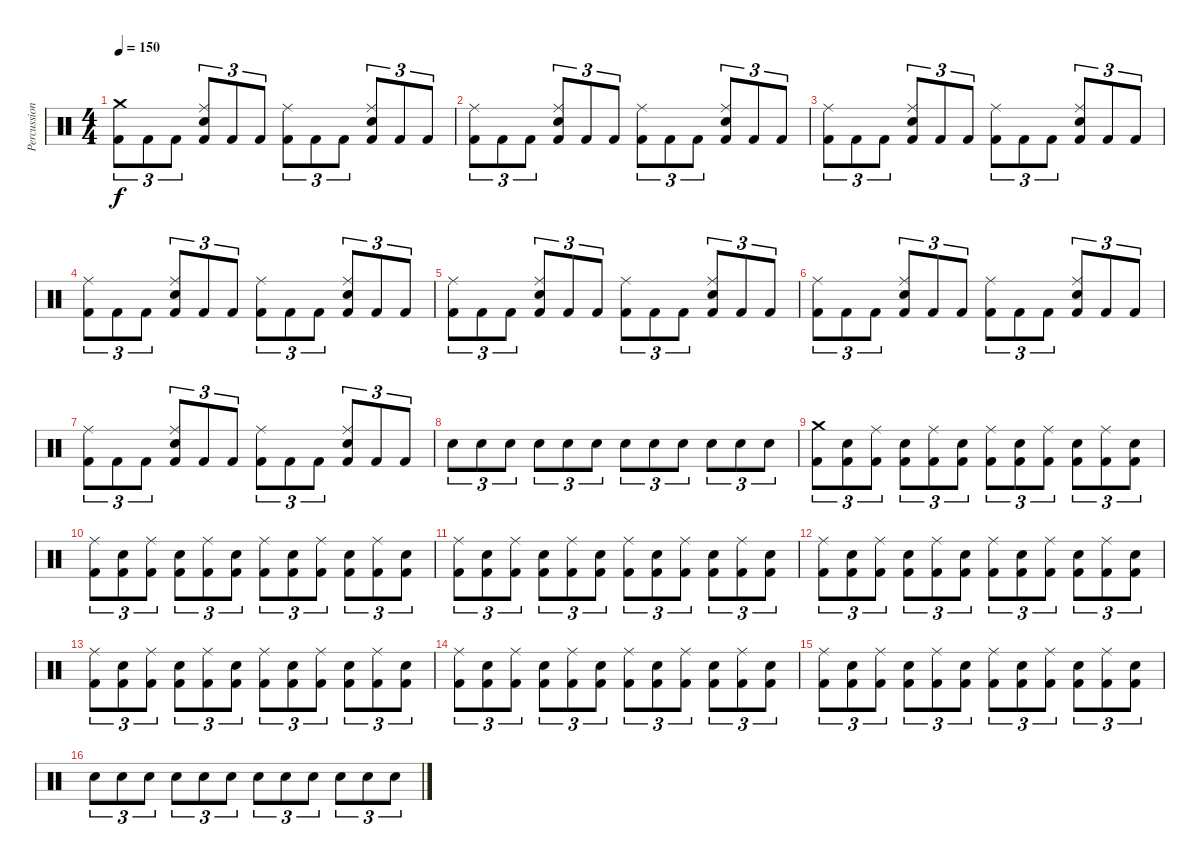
\track ("Percussion" "Percussion") {instrument percussion}
\staff {score}
\articulation defaults
\ts (4 4)
\tempo 150
\clef neutral
\ks c
("Crash medium (hit)" "Kick (hit) 2").8{tu (3 2) dy f} "Kick (hit) 2".8{tu (3 2)} "Kick (hit) 2".8{tu (3 2)} ("Ride (middle)" "Electric Snare (hit)" "Kick (hit) 2").8{tu (3 2)} "Kick (hit) 2".8{tu (3 2)} "Kick (hit) 2".8{tu (3 2)} ("Ride (middle)" "Kick (hit) 2").8{tu (3 2)} "Kick (hit) 2".8{tu (3 2)} "Kick (hit) 2".8{tu (3 2)} ("Ride (middle)" "Electric Snare (hit)" "Kick (hit) 2").8{tu (3 2)} "Kick (hit) 2".8{tu (3 2)} "Kick (hit) 2".8{tu (3 2)} |
("Ride (middle)" "Kick (hit) 2").8{tu (3 2)} "Kick (hit) 2".8{tu (3 2)} "Kick (hit) 2".8{tu (3 2)} ("Ride (middle)" "Electric Snare (hit)" "Kick (hit) 2").8{tu (3 2)} "Kick (hit) 2".8{tu (3 2)} "Kick (hit) 2".8{tu (3 2)} ("Ride (middle)" "Kick (hit) 2").8{tu (3 2)} "Kick (hit) 2".8{tu (3 2)} "Kick (hit) 2".8{tu (3 2)} ("Ride (middle)" "Electric Snare (hit)" "Kick (hit) 2").8{tu (3 2)} "Kick (hit) 2".8{tu (3 2)} "Kick (hit) 2".8{tu (3 2)} |
("Ride (middle)" "Kick (hit) 2").8{tu (3 2)} "Kick (hit) 2".8{tu (3 2)} "Kick (hit) 2".8{tu (3 2)} ("Ride (middle)" "Electric Snare (hit)" "Kick (hit) 2").8{tu (3 2)} "Kick (hit) 2".8{tu (3 2)} "Kick (hit) 2".8{tu (3 2)} ("Ride (middle)" "Kick (hit) 2").8{tu (3 2)} "Kick (hit) 2".8{tu (3 2)} "Kick (hit) 2".8{tu (3 2)} ("Ride (middle)" "Electric Snare (hit)" "Kick (hit) 2").8{tu (3 2)} "Kick (hit) 2".8{tu (3 2)} "Kick (hit) 2".8{tu (3 2)} |
("Ride (middle)" "Kick (hit) 2").8{tu (3 2)} "Kick (hit) 2".8{tu (3 2)} "Kick (hit) 2".8{tu (3 2)} ("Ride (middle)" "Electric Snare (hit)" "Kick (hit) 2").8{tu (3 2)} "Kick (hit) 2".8{tu (3 2)} "Kick (hit) 2".8{tu (3 2)} ("Ride (middle)" "Kick (hit) 2").8{tu (3 2)} "Kick (hit) 2".8{tu (3 2)} "Kick (hit) 2".8{tu (3 2)} ("Ride (middle)" "Electric Snare (hit)" "Kick (hit) 2").8{tu (3 2)} "Kick (hit) 2".8{tu (3 2)} "Kick (hit) 2".8{tu (3 2)} |
("Ride (middle)" "Kick (hit) 2").8{tu (3 2)} "Kick (hit) 2".8{tu (3 2)} "Kick (hit) 2".8{tu (3 2)} ("Ride (middle)" "Electric Snare (hit)" "Kick (hit) 2").8{tu (3 2)} "Kick (hit) 2".8{tu (3 2)} "Kick (hit) 2".8{tu (3 2)} ("Ride (middle)" "Kick (hit) 2").8{tu (3 2)} "Kick (hit) 2".8{tu (3 2)} "Kick (hit) 2".8{tu (3 2)} ("Ride (middle)" "Electric Snare (hit)" "Kick (hit) 2").8{tu (3 2)} "Kick (hit) 2".8{tu (3 2)} "Kick (hit) 2".8{tu (3 2)} |
("Ride (middle)" "Kick (hit) 2").8{tu (3 2)} "Kick (hit) 2".8{tu (3 2)} "Kick (hit) 2".8{tu (3 2)} ("Ride (middle)" "Electric Snare (hit)" "Kick (hit) 2").8{tu (3 2)} "Kick (hit) 2".8{tu (3 2)} "Kick (hit) 2".8{tu (3 2)} ("Ride (middle)" "Kick (hit) 2").8{tu (3 2)} "Kick (hit) 2".8{tu (3 2)} "Kick (hit) 2".8{tu (3 2)} ("Ride (middle)" "Electric Snare (hit)" "Kick (hit) 2").8{tu (3 2)} "Kick (hit) 2".8{tu (3 2)} "Kick (hit) 2".8{tu (3 2)} |
("Ride (middle)" "Kick (hit) 2").8{tu (3 2)} "Kick (hit) 2".8{tu (3 2)} "Kick (hit) 2".8{tu (3 2)} ("Ride (middle)" "Electric Snare (hit)" "Kick (hit) 2").8{tu (3 2)} "Kick (hit) 2".8{tu (3 2)} "Kick (hit) 2".8{tu (3 2)} ("Ride (middle)" "Kick (hit) 2").8{tu (3 2)} "Kick (hit) 2".8{tu (3 2)} "Kick (hit) 2".8{tu (3 2)} ("Ride (middle)" "Electric Snare (hit)" "Kick (hit) 2").8{tu (3 2)} "Kick (hit) 2".8{tu (3 2)} "Kick (hit) 2".8{tu (3 2)} |
"Electric Snare (hit)".8{tu (3 2)} "Electric Snare (hit)".8{tu (3 2)} "Electric Snare (hit)".8{tu (3 2)} "Electric Snare (hit)".8{tu (3 2)} "Electric Snare (hit)".8{tu (3 2)} "Electric Snare (hit)".8{tu (3 2)} "Electric Snare (hit)".8{tu (3 2)} "Electric Snare (hit)".8{tu (3 2)} "Electric Snare (hit)".8{tu (3 2)} "Electric Snare (hit)".8{tu (3 2)} "Electric Snare (hit)".8{tu (3 2)} "Electric Snare (hit)".8{tu (3 2)} |
("Crash medium (hit)" "Kick (hit) 2").8{tu (3 2)} ("Electric Snare (hit)" "Kick (hit) 2").8{tu (3 2)} ("Ride (middle)" "Kick (hit) 2").8{tu (3 2)} ("Electric Snare (hit)" "Kick (hit) 2").8{tu (3 2)} ("Ride (middle)" "Kick (hit) 2").8{tu (3 2)} ("Electric Snare (hit)" "Kick (hit) 2").8{tu (3 2)} ("Ride (middle)" "Kick (hit) 2").8{tu (3 2)} ("Electric Snare (hit)" "Kick (hit) 2").8{tu (3 2)} ("Ride (middle)" "Kick (hit) 2").8{tu (3 2)} ("Electric Snare (hit)" "Kick (hit) 2").8{tu (3 2)} ("Ride (middle)" "Kick (hit) 2").8{tu (3 2)} ("Electric Snare (hit)" "Kick (hit) 2").8{tu (3 2)} |
("Ride (middle)" "Kick (hit) 2").8{tu (3 2)} ("Electric Snare (hit)" "Kick (hit) 2").8{tu (3 2)} ("Ride (middle)" "Kick (hit) 2").8{tu (3 2)} ("Electric Snare (hit)" "Kick (hit) 2").8{tu (3 2)} ("Ride (middle)" "Kick (hit) 2").8{tu (3 2)} ("Electric Snare (hit)" "Kick (hit) 2").8{tu (3 2)} ("Ride (middle)" "Kick (hit) 2").8{tu (3 2)} ("Electric Snare (hit)" "Kick (hit) 2").8{tu (3 2)} ("Ride (middle)" "Kick (hit) 2").8{tu (3 2)} ("Electric Snare (hit)" "Kick (hit) 2").8{tu (3 2)} ("Ride (middle)" "Kick (hit) 2").8{tu (3 2)} ("Electric Snare (hit)" "Kick (hit) 2").8{tu (3 2)} |
("Ride (middle)" "Kick (hit) 2").8{tu (3 2)} ("Electric Snare (hit)" "Kick (hit) 2").8{tu (3 2)} ("Ride (middle)" "Kick (hit) 2").8{tu (3 2)} ("Electric Snare (hit)" "Kick (hit) 2").8{tu (3 2)} ("Ride (middle)" "Kick (hit) 2").8{tu (3 2)} ("Electric Snare (hit)" "Kick (hit) 2").8{tu (3 2)} ("Ride (middle)" "Kick (hit) 2").8{tu (3 2)} ("Electric Snare (hit)" "Kick (hit) 2").8{tu (3 2)} ("Ride (middle)" "Kick (hit) 2").8{tu (3 2)} ("Electric Snare (hit)" "Kick (hit) 2").8{tu (3 2)} ("Ride (middle)" "Kick (hit) 2").8{tu (3 2)} ("Electric Snare (hit)" "Kick (hit) 2").8{tu (3 2)} |
("Ride (middle)" "Kick (hit) 2").8{tu (3 2)} ("Electric Snare (hit)" "Kick (hit) 2").8{tu (3 2)} ("Ride (middle)" "Kick (hit) 2").8{tu (3 2)} ("Electric Snare (hit)" "Kick (hit) 2").8{tu (3 2)} ("Ride (middle)" "Kick (hit) 2").8{tu (3 2)} ("Electric Snare (hit)" "Kick (hit) 2").8{tu (3 2)} ("Ride (middle)" "Kick (hit) 2").8{tu (3 2)} ("Electric Snare (hit)" "Kick (hit) 2").8{tu (3 2)} ("Ride (middle)" "Kick (hit) 2").8{tu (3 2)} ("Electric Snare (hit)" "Kick (hit) 2").8{tu (3 2)} ("Ride (middle)" "Kick (hit) 2").8{tu (3 2)} ("Electric Snare (hit)" "Kick (hit) 2").8{tu (3 2)} |
("Ride (middle)" "Kick (hit) 2").8{tu (3 2)} ("Electric Snare (hit)" "Kick (hit) 2").8{tu (3 2)} ("Ride (middle)" "Kick (hit) 2").8{tu (3 2)} ("Electric Snare (hit)" "Kick (hit) 2").8{tu (3 2)} ("Ride (middle)" "Kick (hit) 2").8{tu (3 2)} ("Electric Snare (hit)" "Kick (hit) 2").8{tu (3 2)} ("Ride (middle)" "Kick (hit) 2").8{tu (3 2)} ("Electric Snare (hit)" "Kick (hit) 2").8{tu (3 2)} ("Ride (middle)" "Kick (hit) 2").8{tu (3 2)} ("Electric Snare (hit)" "Kick (hit) 2").8{tu (3 2)} ("Ride (middle)" "Kick (hit) 2").8{tu (3 2)} ("Electric Snare (hit)" "Kick (hit) 2").8{tu (3 2)} |
("Ride (middle)" "Kick (hit) 2").8{tu (3 2)} ("Electric Snare (hit)" "Kick (hit) 2").8{tu (3 2)} ("Ride (middle)" "Kick (hit) 2").8{tu (3 2)} ("Electric Snare (hit)" "Kick (hit) 2").8{tu (3 2)} ("Ride (middle)" "Kick (hit) 2").8{tu (3 2)} ("Electric Snare (hit)" "Kick (hit) 2").8{tu (3 2)} ("Ride (middle)" "Kick (hit) 2").8{tu (3 2)} ("Electric Snare (hit)" "Kick (hit) 2").8{tu (3 2)} ("Ride (middle)" "Kick (hit) 2").8{tu (3 2)} ("Electric Snare (hit)" "Kick (hit) 2").8{tu (3 2)} ("Ride (middle)" "Kick (hit) 2").8{tu (3 2)} ("Electric Snare (hit)" "Kick (hit) 2").8{tu (3 2)} |
("Ride (middle)" "Kick (hit) 2").8{tu (3 2)} ("Electric Snare (hit)" "Kick (hit) 2").8{tu (3 2)} ("Ride (middle)" "Kick (hit) 2").8{tu (3 2)} ("Electric Snare (hit)" "Kick (hit) 2").8{tu (3 2)} ("Ride (middle)" "Kick (hit) 2").8{tu (3 2)} ("Electric Snare (hit)" "Kick (hit) 2").8{tu (3 2)} ("Ride (middle)" "Kick (hit) 2").8{tu (3 2)} ("Electric Snare (hit)" "Kick (hit) 2").8{tu (3 2)} ("Ride (middle)" "Kick (hit) 2").8{tu (3 2)} ("Electric Snare (hit)" "Kick (hit) 2").8{tu (3 2)} ("Ride (middle)" "Kick (hit) 2").8{tu (3 2)} ("Electric Snare (hit)" "Kick (hit) 2").8{tu (3 2)} |
"Electric Snare (hit)".8{tu (3 2)} "Electric Snare (hit)".8{tu (3 2)} "Electric Snare (hit)".8{tu (3 2)} "Electric Snare (hit)".8{tu (3 2)} "Electric Snare (hit)".8{tu (3 2)} "Electric Snare (hit)".8{tu (3 2)} "Electric Snare (hit)".8{tu (3 2)} "Electric Snare (hit)".8{tu (3 2)} "Electric Snare (hit)".8{tu (3 2)} "Electric Snare (hit)".8{tu (3 2)} "Electric Snare (hit)".8{tu (3 2)} "Electric Snare (hit)".8{tu (3 2)}
